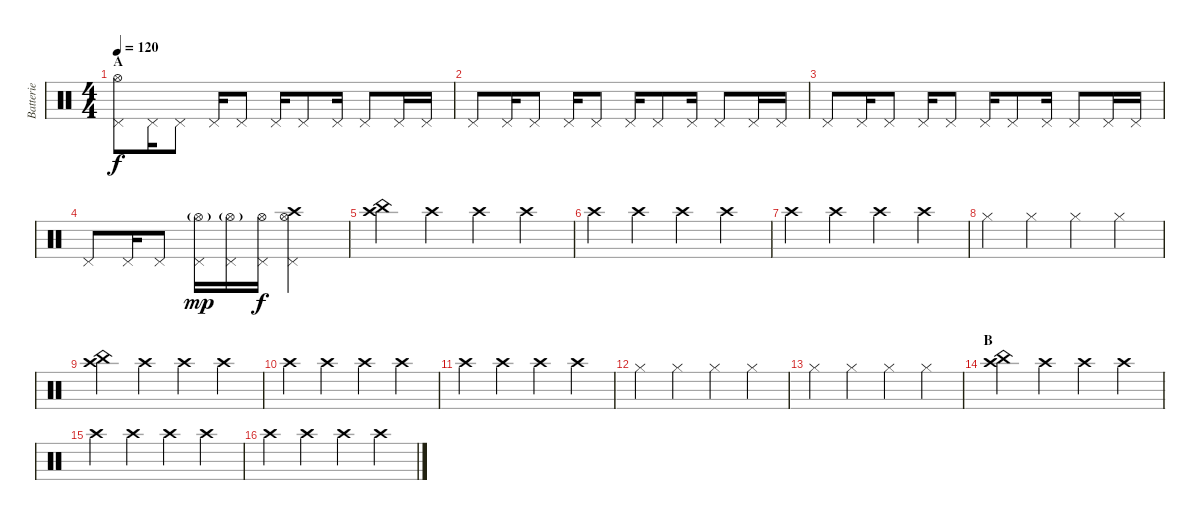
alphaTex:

\track ("Batterie" "Batterie") {instrument percussion}
\staff {score}
\articulation defaults
\ts (4 4)
\section ("" "A")
\tempo 120
\clef neutral
\ks c
("Pedal Hi-Hat (hit)" "Hi-Hat (open)").8{dy f} "Pedal Hi-Hat (hit)".16 "Pedal Hi-Hat (hit)".8 "Pedal Hi-Hat (hit)".16 "Pedal Hi-Hat (hit)".8 "Pedal Hi-Hat (hit)".16 "Pedal Hi-Hat (hit)".8 "Pedal Hi-Hat (hit)".16 "Pedal Hi-Hat (hit)".8 "Pedal Hi-Hat (hit)".16 "Pedal Hi-Hat (hit)".16 |
"Pedal Hi-Hat (hit)".8 "Pedal Hi-Hat (hit)".16 "Pedal Hi-Hat (hit)".8 "Pedal Hi-Hat (hit)".16 "Pedal Hi-Hat (hit)".8 "Pedal Hi-Hat (hit)".16 "Pedal Hi-Hat (hit)".8 "Pedal Hi-Hat (hit)".16 "Pedal Hi-Hat (hit)".8 "Pedal Hi-Hat (hit)".16 "Pedal Hi-Hat (hit)".16 |
"Pedal Hi-Hat (hit)".8 "Pedal Hi-Hat (hit)".16 "Pedal Hi-Hat (hit)".8 "Pedal Hi-Hat (hit)".16 "Pedal Hi-Hat (hit)".8 "Pedal Hi-Hat (hit)".16 "Pedal Hi-Hat (hit)".8 "Pedal Hi-Hat (hit)".16 "Pedal Hi-Hat (hit)".8 "Pedal Hi-Hat (hit)".16 "Pedal Hi-Hat (hit)".16 |
"Pedal Hi-Hat (hit)".8 "Pedal Hi-Hat (hit)".16 "Pedal Hi-Hat (hit)".8 ("Pedal Hi-Hat (hit)" "Hi-Hat (open)"{g}).16{dy mp} ("Pedal Hi-Hat (hit)" "Hi-Hat (open)"{g}).16 ("Pedal Hi-Hat (hit)" "Hi-Hat (open)").16{dy f} ("Pedal Hi-Hat (hit)" "Hi-Hat (open)" "Crash high (hit)").2 |
("China (hit)" "Crash high (hit)").4 "Crash high (hit)".4 "Crash high (hit)".4 "Crash high (hit)".4 |
"Crash high (hit)".4 "Crash high (hit)".4 "Crash high (hit)".4 "Crash high (hit)".4 |
"Crash high (hit)".4 "Crash high (hit)".4 "Crash high (hit)".4 "Crash high (hit)".4 |
"Hi-Hat (closed)".4 "Hi-Hat (closed)".4 "Hi-Hat (closed)".4 "Hi-Hat (closed)".4 |
("China (hit)" "Crash high (hit)").4 "Crash high (hit)".4 "Crash high (hit)".4 "Crash high (hit)".4 |
"Crash high (hit)".4 "Crash high (hit)".4 "Crash high (hit)".4 "Crash high (hit)".4 |
"Crash high (hit)".4 "Crash high (hit)".4 "Crash high (hit)".4 "Crash high (hit)".4 |
"Hi-Hat (closed)".4 "Hi-Hat (closed)".4 "Hi-Hat (closed)".4 "Hi-Hat (closed)".4 |
"Hi-Hat (closed)".4 "Hi-Hat (closed)".4 "Hi-Hat (closed)".4 "Hi-Hat (closed)".4 |
\section ("" "B")
("China (hit)" "Crash high (hit)").4 "Crash high (hit)".4 "Crash high (hit)".4 "Crash high (hit)".4 |
"Crash high (hit)".4 "Crash high (hit)".4 "Crash high (hit)".4 "Crash high (hit)".4 |
"Crash high (hit)".4 "Crash high (hit)".4 "Crash high (hit)".4 "Crash high (hit)".4
